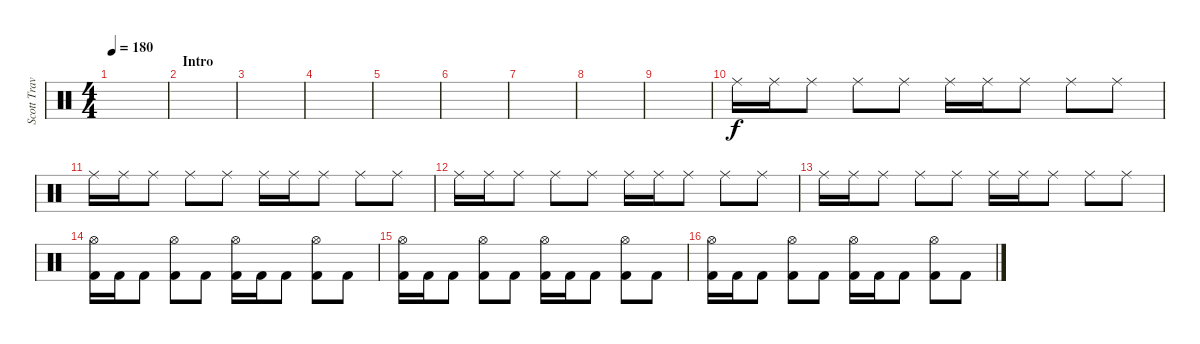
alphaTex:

\track ("Scott Travis" "Scott Trav") {instrument percussion}
\staff {score}
\articulation defaults
\ts (4 4)
\tempo 180
\clef neutral
\ks c
|
\section ("" "Intro")
|
|
|
|
|
|
|
|
"Ride (middle)".16 "Ride (middle)".16 "Ride (middle)".8 "Ride (middle)".8 "Ride (middle)".8 "Ride (middle)".16 "Ride (middle)".16 "Ride (middle)".8 "Ride (middle)".8 "Ride (middle)".8 |
"Ride (middle)".16 "Ride (middle)".16 "Ride (middle)".8 "Ride (middle)".8 "Ride (middle)".8 "Ride (middle)".16 "Ride (middle)".16 "Ride (middle)".8 "Ride (middle)".8 "Ride (middle)".8 |
"Ride (middle)".16 "Ride (middle)".16 "Ride (middle)".8 "Ride (middle)".8 "Ride (middle)".8 "Ride (middle)".16 "Ride (middle)".16 "Ride (middle)".8 "Ride (middle)".8 "Ride (middle)".8 |
"Ride (middle)".16 "Ride (middle)".16 "Ride (middle)".8 "Ride (middle)".8 "Ride (middle)".8 "Ride (middle)".16 "Ride (middle)".16 "Ride (middle)".8 "Ride (middle)".8 "Ride (middle)".8 |
("Hi-Hat (open)" "Kick (hit) 2").16 "Kick (hit) 2".16 "Kick (hit) 2".8 ("Hi-Hat (open)" "Kick (hit) 2").8 "Kick (hit) 2".8 ("Hi-Hat (open)" "Kick (hit) 2").16 "Kick (hit) 2".16 "Kick (hit) 2".8 ("Hi-Hat (open)" "Kick (hit) 2").8 "Kick (hit) 2".8 |
("Hi-Hat (open)" "Kick (hit) 2").16 "Kick (hit) 2".16 "Kick (hit) 2".8 ("Hi-Hat (open)" "Kick (hit) 2").8 "Kick (hit) 2".8 ("Hi-Hat (open)" "Kick (hit) 2").16 "Kick (hit) 2".16 "Kick (hit) 2".8 ("Hi-Hat (open)" "Kick (hit) 2").8 "Kick (hit) 2".8 |
("Hi-Hat (open)" "Kick (hit) 2").16 "Kick (hit) 2".16 "Kick (hit) 2".8 ("Hi-Hat (open)" "Kick (hit) 2").8 "Kick (hit) 2".8 ("Hi-Hat (open)" "Kick (hit) 2").16 "Kick (hit) 2".16 "Kick (hit) 2".8 ("Hi-Hat (open)" "Kick (hit) 2").8 "Kick (hit) 2".8
